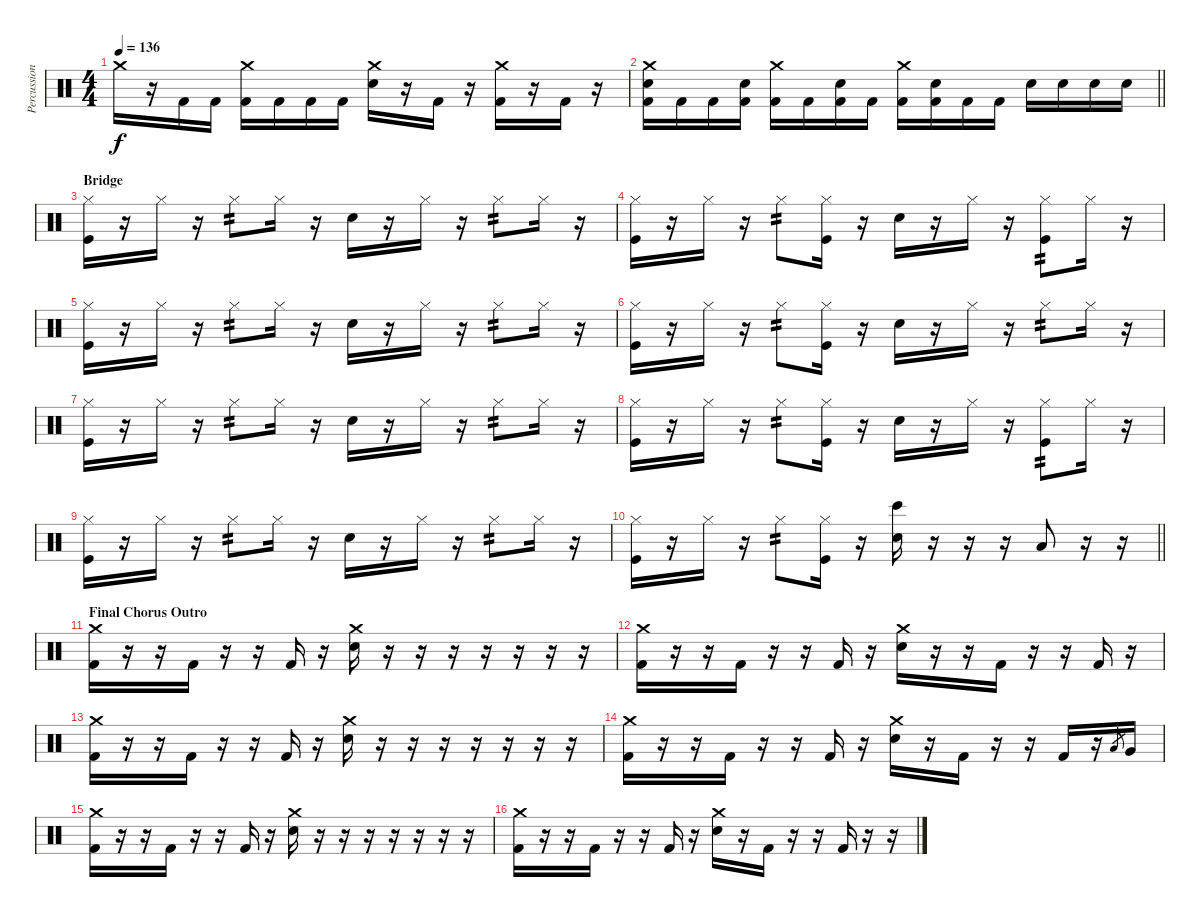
\track ("Percussion" "Percussion") {instrument percussion}
\staff {score}
\articulation defaults
\ts (4 4)
\tempo 136
\clef neutral
\ks c "Crash medium (hit)".16{dy f}
r.16 "Kick (hit) 2".16 "Kick (hit) 2".16 ("Crash medium (hit)" "Kick (hit) 2").16 "Kick (hit) 2".16 "Kick (hit) 2".16 "Kick (hit) 2".16 ("Crash medium (hit)" "Electric Snare (hit)").16 r.16 "Kick (hit) 2".16 r.16 ("Crash medium (hit)" "Kick (hit) 2").16 r.16 "Kick (hit) 2".16 r.16 |
\barLineRight lightlight
("Crash medium (hit)" "Electric Snare (hit)" "Kick (hit) 2").16 "Kick (hit) 2".16 "Kick (hit) 2".16 ("Electric Snare (hit)" "Kick (hit) 2").16 ("Crash medium (hit)" "Kick (hit) 2").16 "Kick (hit) 2".16 ("Electric Snare (hit)" "Kick (hit) 2").16 "Kick (hit) 2".16 ("Crash medium (hit)" "Kick (hit) 2").16 ("Electric Snare (hit)" "Kick (hit) 2").16 "Kick (hit) 2".16 "Kick (hit) 2".16 "Electric Snare (hit)".16 "Electric Snare (hit)".16 "Electric Snare (hit)".16 "Electric Snare (hit)".16 |
\section ("" "Bridge")
("Hi-Hat (closed)" "Kick (hit)").16 r.16 "Hi-Hat (closed)".16 r.16 "Hi-Hat (closed)".8{tp 2} "Hi-Hat (closed)".16 r.16 "Electric Snare (hit)".16 r.16 "Hi-Hat (closed)".16 r.16 "Hi-Hat (closed)".8{tp 2} "Hi-Hat (closed)".16 r.16 |
("Hi-Hat (closed)" "Kick (hit)").16 r.16 "Hi-Hat (closed)".16 r.16 "Hi-Hat (closed)".8{tp 2} ("Hi-Hat (closed)" "Kick (hit)").16 r.16 "Electric Snare (hit)".16 r.16 "Hi-Hat (closed)".16 r.16 ("Hi-Hat (closed)" "Kick (hit)").8{tp 2} "Hi-Hat (closed)".16 r.16 |
("Hi-Hat (closed)" "Kick (hit)").16 r.16 "Hi-Hat (closed)".16 r.16 "Hi-Hat (closed)".8{tp 2} "Hi-Hat (closed)".16 r.16 "Electric Snare (hit)".16 r.16 "Hi-Hat (closed)".16 r.16 "Hi-Hat (closed)".8{tp 2} "Hi-Hat (closed)".16 r.16 |
("Hi-Hat (closed)" "Kick (hit)").16 r.16 "Hi-Hat (closed)".16 r.16 "Hi-Hat (closed)".8{tp 2} ("Hi-Hat (closed)" "Kick (hit)").16 r.16 "Electric Snare (hit)".16 r.16 "Hi-Hat (closed)".16 r.16 "Hi-Hat (closed)".8{tp 2} "Hi-Hat (closed)".16 r.16 |
("Hi-Hat (closed)" "Kick (hit)").16 r.16 "Hi-Hat (closed)".16 r.16 "Hi-Hat (closed)".8{tp 2} "Hi-Hat (closed)".16 r.16 "Electric Snare (hit)".16 r.16 "Hi-Hat (closed)".16 r.16 "Hi-Hat (closed)".8{tp 2} "Hi-Hat (closed)".16 r.16 |
("Hi-Hat (closed)" "Kick (hit)").16 r.16 "Hi-Hat (closed)".16 r.16 "Hi-Hat (closed)".8{tp 2} ("Hi-Hat (closed)" "Kick (hit)").16 r.16 "Electric Snare (hit)".16 r.16 "Hi-Hat (closed)".16 r.16 ("Hi-Hat (closed)" "Kick (hit)").8{tp 2} "Hi-Hat (closed)".16 r.16 |
("Hi-Hat (closed)" "Kick (hit)").16 r.16 "Hi-Hat (closed)".16 r.16 "Hi-Hat (closed)".8{tp 2} "Hi-Hat (closed)".16 r.16 "Electric Snare (hit)".16 r.16 "Hi-Hat (closed)".16 r.16 "Hi-Hat (closed)".8{tp 2} "Hi-Hat (closed)".16 r.16 |
\barLineRight lightlight
("Hi-Hat (closed)" "Kick (hit)").16 r.16 "Hi-Hat (closed)".16 r.16 "Hi-Hat (closed)".8{tp 2} ("Hi-Hat (closed)" "Kick (hit)").16 r.16 ("Bongo High (hit)" "Hand Clap (hit)").16 r.16 r.16 r.16 "Low Floor Tom (hit)".8 r.16 r.16 |
\section ("" "Final Chorus Outro")
("Crash medium (hit)" "Kick (hit) 2").16 r.16 r.16 "Kick (hit) 2".16 r.16 r.16 "Kick (hit) 2".16 r.16 ("Crash medium (hit)" "Electric Snare (hit)").16 r.16 r.16 r.16 r.16 r.16 r.16 r.16 |
("Crash medium (hit)" "Kick (hit) 2").16 r.16 r.16 "Kick (hit) 2".16 r.16 r.16 "Kick (hit) 2".16 r.16 ("Crash medium (hit)" "Electric Snare (hit)").16 r.16 r.16 "Kick (hit) 2".16 r.16 r.16 "Kick (hit) 2".16 r.16 |
("Crash medium (hit)" "Kick (hit) 2").16 r.16 r.16 "Kick (hit) 2".16 r.16 r.16 "Kick (hit) 2".16 r.16 ("Crash medium (hit)" "Electric Snare (hit)").16 r.16 r.16 r.16 r.16 r.16 r.16 r.16 |
("Crash medium (hit)" "Kick (hit) 2").16 r.16 r.16 "Kick (hit) 2".16 r.16 r.16 "Kick (hit) 2".16 r.16 ("Crash medium (hit)" "Electric Snare (hit)").16 r.16 "Kick (hit) 2".16 r.16 r.16 "Kick (hit) 2".16 r.16 "Low Tom (hit)".8{gr} "Very Low Tom (hit)".16 |
("Crash medium (hit)" "Kick (hit) 2").16 r.16 r.16 "Kick (hit) 2".16 r.16 r.16 "Kick (hit) 2".16 r.16 ("Crash medium (hit)" "Electric Snare (hit)").16 r.16 r.16 r.16 r.16 r.16 r.16 r.16 |
("Crash medium (hit)" "Kick (hit) 2").16 r.16 r.16 "Kick (hit) 2".16 r.16 r.16 "Kick (hit) 2".16 r.16 ("Crash medium (hit)" "Electric Snare (hit)").16 r.16 "Kick (hit) 2".16 r.16 r.16 "Kick (hit) 2".16 r.16 r.16
